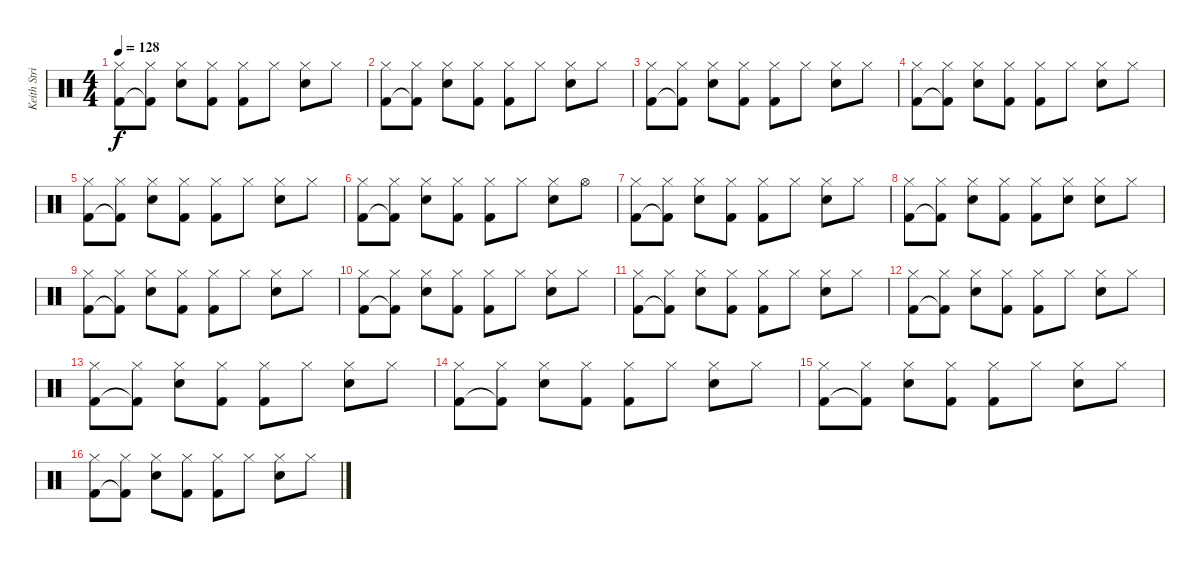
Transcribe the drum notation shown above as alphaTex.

\track ("Keith Strickland (drums)" "Keith Stri") {instrument percussion}
\staff {score}
\articulation defaults
\ts (4 4)
\tempo 128
\clef neutral
\ks c
("Hi-Hat (closed)" "Kick (hit) 2").8{dy f} ("Hi-Hat (closed)" "Kick (hit) 2"{t}).8 ("Hi-Hat (closed)" "Snare (hit) 2").8 ("Hi-Hat (closed)" "Kick (hit) 2").8 ("Hi-Hat (closed)" "Kick (hit) 2").8 "Hi-Hat (closed)".8 ("Hi-Hat (closed)" "Snare (hit) 2").8 "Hi-Hat (closed)".8 |
("Hi-Hat (closed)" "Kick (hit) 2").8 ("Hi-Hat (closed)" "Kick (hit) 2"{t}).8 ("Hi-Hat (closed)" "Snare (hit) 2").8 ("Hi-Hat (closed)" "Kick (hit) 2").8 ("Hi-Hat (closed)" "Kick (hit) 2").8 "Hi-Hat (closed)".8 ("Hi-Hat (closed)" "Snare (hit) 2").8 "Hi-Hat (closed)".8 |
("Hi-Hat (closed)" "Kick (hit) 2").8 ("Hi-Hat (closed)" "Kick (hit) 2"{t}).8 ("Hi-Hat (closed)" "Snare (hit) 2").8 ("Hi-Hat (closed)" "Kick (hit) 2").8 ("Hi-Hat (closed)" "Kick (hit) 2").8 "Hi-Hat (closed)".8 ("Hi-Hat (closed)" "Snare (hit) 2").8 "Hi-Hat (closed)".8 |
("Hi-Hat (closed)" "Kick (hit) 2").8 ("Hi-Hat (closed)" "Kick (hit) 2"{t}).8 ("Hi-Hat (closed)" "Snare (hit) 2").8 ("Hi-Hat (closed)" "Kick (hit) 2").8 ("Hi-Hat (closed)" "Kick (hit) 2").8 "Hi-Hat (closed)".8 ("Hi-Hat (closed)" "Snare (hit) 2").8 "Hi-Hat (closed)".8 |
("Hi-Hat (closed)" "Kick (hit) 2").8 ("Hi-Hat (closed)" "Kick (hit) 2"{t}).8 ("Hi-Hat (closed)" "Snare (hit) 2").8 ("Hi-Hat (closed)" "Kick (hit) 2").8 ("Hi-Hat (closed)" "Kick (hit) 2").8 "Hi-Hat (closed)".8 ("Hi-Hat (closed)" "Snare (hit) 2").8 "Hi-Hat (closed)".8 |
("Hi-Hat (closed)" "Kick (hit) 2").8 ("Hi-Hat (closed)" "Kick (hit) 2"{t}).8 ("Hi-Hat (closed)" "Snare (hit) 2").8 ("Hi-Hat (closed)" "Kick (hit) 2").8 ("Hi-Hat (closed)" "Kick (hit) 2").8 "Hi-Hat (closed)".8 ("Hi-Hat (closed)" "Snare (hit) 2").8 "Hi-Hat (open)".8 |
("Hi-Hat (closed)" "Kick (hit) 2").8 ("Hi-Hat (closed)" "Kick (hit) 2"{t}).8 ("Hi-Hat (closed)" "Snare (hit) 2").8 ("Hi-Hat (closed)" "Kick (hit) 2").8 ("Hi-Hat (closed)" "Kick (hit) 2").8 "Hi-Hat (closed)".8 ("Hi-Hat (closed)" "Snare (hit) 2").8 "Hi-Hat (closed)".8 |
("Hi-Hat (closed)" "Kick (hit) 2").8 ("Hi-Hat (closed)" "Kick (hit) 2"{t}).8 ("Hi-Hat (closed)" "Snare (hit) 2").8 ("Hi-Hat (closed)" "Kick (hit) 2").8 ("Hi-Hat (closed)" "Kick (hit) 2").8 ("Hi-Hat (closed)" "Snare (hit) 2").8 ("Hi-Hat (closed)" "Snare (hit) 2").8 "Hi-Hat (closed)".8 |
("Hi-Hat (closed)" "Kick (hit) 2").8 ("Hi-Hat (closed)" "Kick (hit) 2"{t}).8 ("Hi-Hat (closed)" "Snare (hit) 2").8 ("Hi-Hat (closed)" "Kick (hit) 2").8 ("Hi-Hat (closed)" "Kick (hit) 2").8 "Hi-Hat (closed)".8 ("Hi-Hat (closed)" "Snare (hit) 2").8 "Hi-Hat (closed)".8 |
("Hi-Hat (closed)" "Kick (hit) 2").8 ("Hi-Hat (closed)" "Kick (hit) 2"{t}).8 ("Hi-Hat (closed)" "Snare (hit) 2").8 ("Hi-Hat (closed)" "Kick (hit) 2").8 ("Hi-Hat (closed)" "Kick (hit) 2").8 "Hi-Hat (closed)".8 ("Hi-Hat (closed)" "Snare (hit) 2").8 "Hi-Hat (closed)".8 |
("Hi-Hat (closed)" "Kick (hit) 2").8 ("Hi-Hat (closed)" "Kick (hit) 2"{t}).8 ("Hi-Hat (closed)" "Snare (hit) 2").8 ("Hi-Hat (closed)" "Kick (hit) 2").8 ("Hi-Hat (closed)" "Kick (hit) 2").8 "Hi-Hat (closed)".8 ("Hi-Hat (closed)" "Snare (hit) 2").8 "Hi-Hat (closed)".8 |
("Hi-Hat (closed)" "Kick (hit) 2").8 ("Hi-Hat (closed)" "Kick (hit) 2"{t}).8 ("Hi-Hat (closed)" "Snare (hit) 2").8 ("Hi-Hat (closed)" "Kick (hit) 2").8 ("Hi-Hat (closed)" "Kick (hit) 2").8 "Hi-Hat (closed)".8 ("Hi-Hat (closed)" "Snare (hit) 2").8 "Hi-Hat (closed)".8 |
("Hi-Hat (closed)" "Kick (hit) 2").8 ("Hi-Hat (closed)" "Kick (hit) 2"{t}).8 ("Hi-Hat (closed)" "Snare (hit) 2").8 ("Hi-Hat (closed)" "Kick (hit) 2").8 ("Hi-Hat (closed)" "Kick (hit) 2").8 "Hi-Hat (closed)".8 ("Hi-Hat (closed)" "Snare (hit) 2").8 "Hi-Hat (closed)".8 |
("Hi-Hat (closed)" "Kick (hit) 2").8 ("Hi-Hat (closed)" "Kick (hit) 2"{t}).8 ("Hi-Hat (closed)" "Snare (hit) 2").8 ("Hi-Hat (closed)" "Kick (hit) 2").8 ("Hi-Hat (closed)" "Kick (hit) 2").8 "Hi-Hat (closed)".8 ("Hi-Hat (closed)" "Snare (hit) 2").8 "Hi-Hat (closed)".8 |
("Hi-Hat (closed)" "Kick (hit) 2").8 ("Hi-Hat (closed)" "Kick (hit) 2"{t}).8 ("Hi-Hat (closed)" "Snare (hit) 2").8 ("Hi-Hat (closed)" "Kick (hit) 2").8 ("Hi-Hat (closed)" "Kick (hit) 2").8 "Hi-Hat (closed)".8 ("Hi-Hat (closed)" "Snare (hit) 2").8 "Hi-Hat (closed)".8 |
("Hi-Hat (closed)" "Kick (hit) 2").8 ("Hi-Hat (closed)" "Kick (hit) 2"{t}).8 ("Hi-Hat (closed)" "Snare (hit) 2").8 ("Hi-Hat (closed)" "Kick (hit) 2").8 ("Hi-Hat (closed)" "Kick (hit) 2").8 "Hi-Hat (closed)".8 ("Hi-Hat (closed)" "Snare (hit) 2").8 "Hi-Hat (closed)".8
